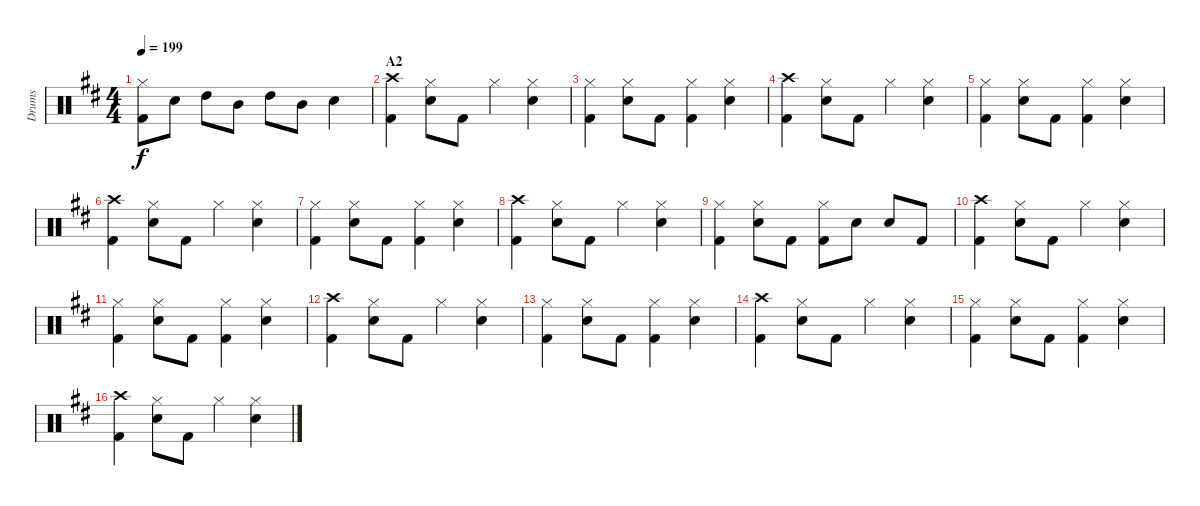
\track ("Drums" "Drums") {instrument percussion}
\staff {score}
\articulation defaults
\ts (4 4)
\tempo 199
\clef neutral
\ks d
("Hi-Hat (closed)" "Kick (hit) 2").8{dy f} "Snare (hit) 2".8 "High Tom (hit)".8 "Mid Tom (hit)".8 "High Tom (hit)".8 "Mid Tom (hit)".8 "Snare (hit) 2".4 |
\section ("" "A2")
("Crash high (hit)" "Kick (hit) 2").4 ("Hi-Hat (closed)" "Snare (hit) 2").8 "Kick (hit) 2".8 "Hi-Hat (closed)".4 ("Hi-Hat (closed)" "Snare (hit) 2").4 |
("Hi-Hat (closed)" "Kick (hit) 2").4 ("Hi-Hat (closed)" "Snare (hit) 2").8 "Kick (hit) 2".8 ("Hi-Hat (closed)" "Kick (hit) 2").4 ("Hi-Hat (closed)" "Snare (hit) 2").4 |
("Crash high (hit)" "Kick (hit) 2").4 ("Hi-Hat (closed)" "Snare (hit) 2").8 "Kick (hit) 2".8 "Hi-Hat (closed)".4 ("Hi-Hat (closed)" "Snare (hit) 2").4 |
("Hi-Hat (closed)" "Kick (hit) 2").4 ("Hi-Hat (closed)" "Snare (hit) 2").8 "Kick (hit) 2".8 ("Hi-Hat (closed)" "Kick (hit) 2").4 ("Hi-Hat (closed)" "Snare (hit) 2").4 |
("Crash high (hit)" "Kick (hit) 2").4 ("Hi-Hat (closed)" "Snare (hit) 2").8 "Kick (hit) 2".8 "Hi-Hat (closed)".4 ("Hi-Hat (closed)" "Snare (hit) 2").4 |
("Hi-Hat (closed)" "Kick (hit) 2").4 ("Hi-Hat (closed)" "Snare (hit) 2").8 "Kick (hit) 2".8 ("Hi-Hat (closed)" "Kick (hit) 2").4 ("Hi-Hat (closed)" "Snare (hit) 2").4 |
("Crash high (hit)" "Kick (hit) 2").4 ("Hi-Hat (closed)" "Snare (hit) 2").8 "Kick (hit) 2".8 "Hi-Hat (closed)".4 ("Hi-Hat (closed)" "Snare (hit) 2").4 |
("Hi-Hat (closed)" "Kick (hit) 2").4 ("Hi-Hat (closed)" "Snare (hit) 2").8 "Kick (hit) 2".8 ("Hi-Hat (closed)" "Kick (hit) 2").8 "Snare (hit) 2".8 "Snare (hit) 2".8 "Kick (hit) 2".8 |
("Crash high (hit)" "Kick (hit) 2").4 ("Hi-Hat (closed)" "Snare (hit) 2").8 "Kick (hit) 2".8 "Hi-Hat (closed)".4 ("Hi-Hat (closed)" "Snare (hit) 2").4 |
("Hi-Hat (closed)" "Kick (hit) 2").4 ("Hi-Hat (closed)" "Snare (hit) 2").8 "Kick (hit) 2".8 ("Hi-Hat (closed)" "Kick (hit) 2").4 ("Hi-Hat (closed)" "Snare (hit) 2").4 |
("Crash high (hit)" "Kick (hit) 2").4 ("Hi-Hat (closed)" "Snare (hit) 2").8 "Kick (hit) 2".8 "Hi-Hat (closed)".4 ("Hi-Hat (closed)" "Snare (hit) 2").4 |
("Hi-Hat (closed)" "Kick (hit) 2").4 ("Hi-Hat (closed)" "Snare (hit) 2").8 "Kick (hit) 2".8 ("Hi-Hat (closed)" "Kick (hit) 2").4 ("Hi-Hat (closed)" "Snare (hit) 2").4 |
("Crash high (hit)" "Kick (hit) 2").4 ("Hi-Hat (closed)" "Snare (hit) 2").8 "Kick (hit) 2".8 "Hi-Hat (closed)".4 ("Hi-Hat (closed)" "Snare (hit) 2").4 |
("Hi-Hat (closed)" "Kick (hit) 2").4 ("Hi-Hat (closed)" "Snare (hit) 2").8 "Kick (hit) 2".8 ("Hi-Hat (closed)" "Kick (hit) 2").4 ("Hi-Hat (closed)" "Snare (hit) 2").4 |
("Crash high (hit)" "Kick (hit) 2").4 ("Hi-Hat (closed)" "Snare (hit) 2").8 "Kick (hit) 2".8 "Hi-Hat (closed)".4 ("Hi-Hat (closed)" "Snare (hit) 2").4
